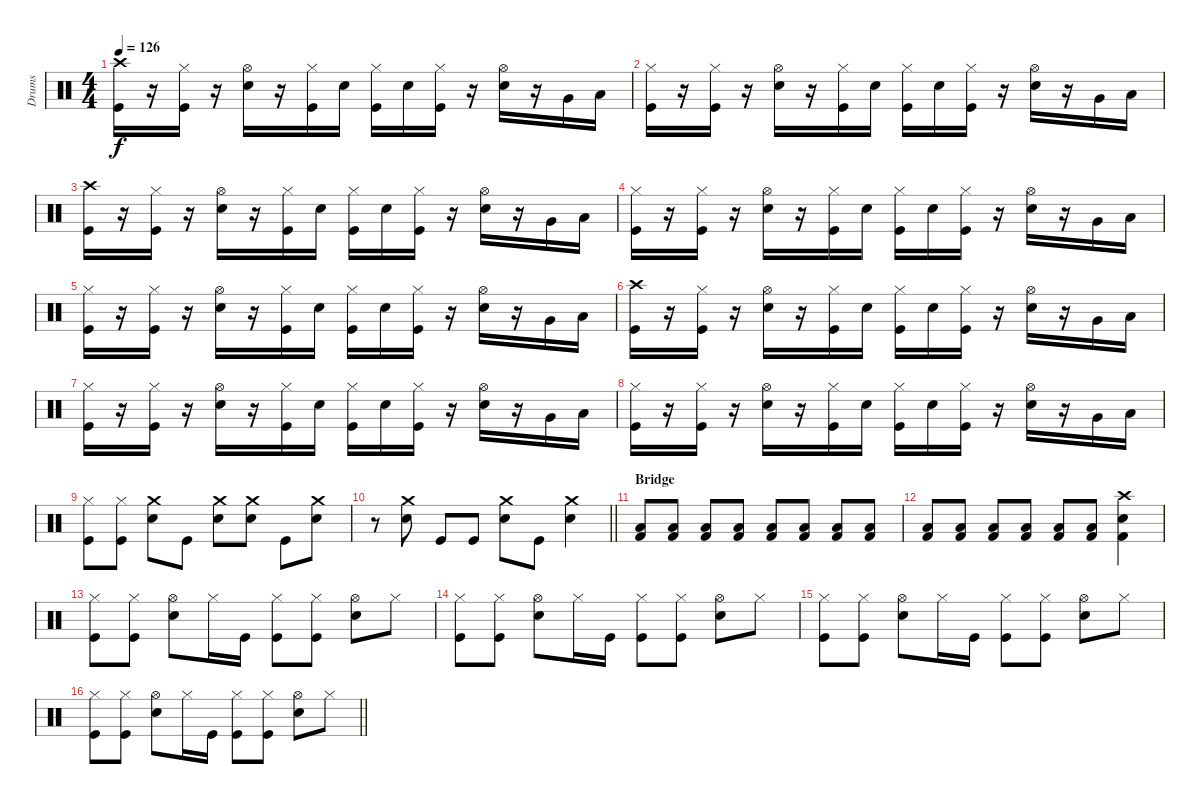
\track ("Drums" "Drums") {instrument percussion}
\staff {score}
\articulation defaults
\ts (4 4)
\tempo 126
\clef neutral
\ks c
("Crash high (hit)" "Kick (hit)").16{dy f} r.16 ("Hi-Hat (closed)" "Kick (hit)").16 r.16 ("Hi-Hat (open)" "Snare (hit) 2").16 r.16 ("Hi-Hat (closed)" "Kick (hit)").16 "Snare (hit) 2".16 ("Hi-Hat (closed)" "Kick (hit)").16 "Snare (hit) 2".16 ("Hi-Hat (closed)" "Kick (hit)").16 r.16 ("Hi-Hat (open)" "Snare (hit) 2").16 r.16 "Very Low Tom (hit)".16 "Low Tom (hit)".16 |
("Hi-Hat (closed)" "Kick (hit)").16 r.16 ("Hi-Hat (closed)" "Kick (hit)").16 r.16 ("Hi-Hat (open)" "Snare (hit) 2").16 r.16 ("Hi-Hat (closed)" "Kick (hit)").16 "Snare (hit) 2".16 ("Hi-Hat (closed)" "Kick (hit)").16 "Snare (hit) 2".16 ("Hi-Hat (closed)" "Kick (hit)").16 r.16 ("Hi-Hat (open)" "Snare (hit) 2").16 r.16 "Very Low Tom (hit)".16 "Low Tom (hit)".16 |
("Crash high (hit)" "Kick (hit)").16 r.16 ("Hi-Hat (closed)" "Kick (hit)").16 r.16 ("Hi-Hat (open)" "Snare (hit) 2").16 r.16 ("Hi-Hat (closed)" "Kick (hit)").16 "Snare (hit) 2".16 ("Hi-Hat (closed)" "Kick (hit)").16 "Snare (hit) 2".16 ("Hi-Hat (closed)" "Kick (hit)").16 r.16 ("Hi-Hat (open)" "Snare (hit) 2").16 r.16 "Very Low Tom (hit)".16 "Low Tom (hit)".16 |
("Hi-Hat (closed)" "Kick (hit)").16 r.16 ("Hi-Hat (closed)" "Kick (hit)").16 r.16 ("Hi-Hat (open)" "Snare (hit) 2").16 r.16 ("Hi-Hat (closed)" "Kick (hit)").16 "Snare (hit) 2".16 ("Hi-Hat (closed)" "Kick (hit)").16 "Snare (hit) 2".16 ("Hi-Hat (closed)" "Kick (hit)").16 r.16 ("Hi-Hat (open)" "Snare (hit) 2").16 r.16 "Very Low Tom (hit)".16 "Low Tom (hit)".16 |
("Hi-Hat (closed)" "Kick (hit)").16 r.16 ("Hi-Hat (closed)" "Kick (hit)").16 r.16 ("Hi-Hat (open)" "Snare (hit) 2").16 r.16 ("Hi-Hat (closed)" "Kick (hit)").16 "Snare (hit) 2".16 ("Hi-Hat (closed)" "Kick (hit)").16 "Snare (hit) 2".16 ("Hi-Hat (closed)" "Kick (hit)").16 r.16 ("Hi-Hat (open)" "Snare (hit) 2").16 r.16 "Very Low Tom (hit)".16 "Low Tom (hit)".16 |
("Crash high (hit)" "Kick (hit)").16 r.16 ("Hi-Hat (closed)" "Kick (hit)").16 r.16 ("Hi-Hat (open)" "Snare (hit) 2").16 r.16 ("Hi-Hat (closed)" "Kick (hit)").16 "Snare (hit) 2".16 ("Hi-Hat (closed)" "Kick (hit)").16 "Snare (hit) 2".16 ("Hi-Hat (closed)" "Kick (hit)").16 r.16 ("Hi-Hat (open)" "Snare (hit) 2").16 r.16 "Very Low Tom (hit)".16 "Low Tom (hit)".16 |
("Hi-Hat (closed)" "Kick (hit)").16 r.16 ("Hi-Hat (closed)" "Kick (hit)").16 r.16 ("Hi-Hat (open)" "Snare (hit) 2").16 r.16 ("Hi-Hat (closed)" "Kick (hit)").16 "Snare (hit) 2".16 ("Hi-Hat (closed)" "Kick (hit)").16 "Snare (hit) 2".16 ("Hi-Hat (closed)" "Kick (hit)").16 r.16 ("Hi-Hat (open)" "Snare (hit) 2").16 r.16 "Very Low Tom (hit)".16 "Low Tom (hit)".16 |
("Hi-Hat (closed)" "Kick (hit)").16 r.16 ("Hi-Hat (closed)" "Kick (hit)").16 r.16 ("Hi-Hat (open)" "Snare (hit) 2").16 r.16 ("Hi-Hat (closed)" "Kick (hit)").16 "Snare (hit) 2".16 ("Hi-Hat (closed)" "Kick (hit)").16 "Snare (hit) 2".16 ("Hi-Hat (closed)" "Kick (hit)").16 r.16 ("Hi-Hat (open)" "Snare (hit) 2").16 r.16 "Very Low Tom (hit)".16 "Low Tom (hit)".16 |
("Hi-Hat (closed)" "Kick (hit)").8 ("Hi-Hat (closed)" "Kick (hit)").8 ("Crash medium (hit)" "Snare (hit) 2").8 "Kick (hit)".8 ("Crash medium (hit)" "Snare (hit) 2").8 ("Crash medium (hit)" "Snare (hit) 2").8 "Kick (hit)".8 ("Crash medium (hit)" "Snare (hit) 2").8 |
\barLineRight lightlight
r.8 ("Crash medium (hit)" "Snare (hit) 2").8 "Kick (hit)".8 "Kick (hit)".8 ("Crash medium (hit)" "Snare (hit) 2").8 "Kick (hit)".8 ("Crash medium (hit)" "Snare (hit) 2").4 |
\section ("" "Bridge")
("Low Floor Tom (hit)" "Kick (hit) 2").8{volume 6} ("Low Floor Tom (hit)" "Kick (hit) 2").8{volume 16} ("Low Floor Tom (hit)" "Kick (hit) 2").8 ("Low Floor Tom (hit)" "Kick (hit) 2").8 ("Low Floor Tom (hit)" "Kick (hit) 2").8 ("Low Floor Tom (hit)" "Kick (hit) 2").8 ("Low Floor Tom (hit)" "Kick (hit) 2").8 ("Low Floor Tom (hit)" "Kick (hit) 2").8 |
("Low Floor Tom (hit)" "Kick (hit) 2").8 ("Low Floor Tom (hit)" "Kick (hit) 2").8 ("Low Floor Tom (hit)" "Kick (hit) 2").8 ("Low Floor Tom (hit)" "Kick (hit) 2").8 ("Low Floor Tom (hit)" "Kick (hit) 2").8 ("Low Floor Tom (hit)" "Kick (hit) 2").8 ("Crash high (hit)" "Electric Snare (hit)" "Kick (hit) 2").4{volume 12} |
("Hi-Hat (closed)" "Kick (hit)").8 ("Hi-Hat (closed)" "Kick (hit)").8 ("Hi-Hat (open)" "Snare (hit) 2").8 "Hi-Hat (closed)".16 "Kick (hit)".16 ("Hi-Hat (closed)" "Kick (hit)").8 ("Hi-Hat (closed)" "Kick (hit)").8 ("Hi-Hat (open)" "Snare (hit) 2").8 "Hi-Hat (closed)".8 |
("Hi-Hat (closed)" "Kick (hit)").8 ("Hi-Hat (closed)" "Kick (hit)").8 ("Hi-Hat (open)" "Snare (hit) 2").8 "Hi-Hat (closed)".16 "Kick (hit)".16 ("Hi-Hat (closed)" "Kick (hit)").8 ("Hi-Hat (closed)" "Kick (hit)").8 ("Hi-Hat (open)" "Snare (hit) 2").8 "Hi-Hat (closed)".8 |
("Hi-Hat (closed)" "Kick (hit)").8 ("Hi-Hat (closed)" "Kick (hit)").8 ("Hi-Hat (open)" "Snare (hit) 2").8 "Hi-Hat (closed)".16 "Kick (hit)".16 ("Hi-Hat (closed)" "Kick (hit)").8 ("Hi-Hat (closed)" "Kick (hit)").8 ("Hi-Hat (open)" "Snare (hit) 2").8 "Hi-Hat (closed)".8 |
\barLineRight lightlight
("Hi-Hat (closed)" "Kick (hit)").8 ("Hi-Hat (closed)" "Kick (hit)").8 ("Hi-Hat (open)" "Snare (hit) 2").8 "Hi-Hat (closed)".16 "Kick (hit)".16 ("Hi-Hat (closed)" "Kick (hit)").8 ("Hi-Hat (closed)" "Kick (hit)").8 ("Hi-Hat (open)" "Snare (hit) 2").8 "Hi-Hat (closed)".8
